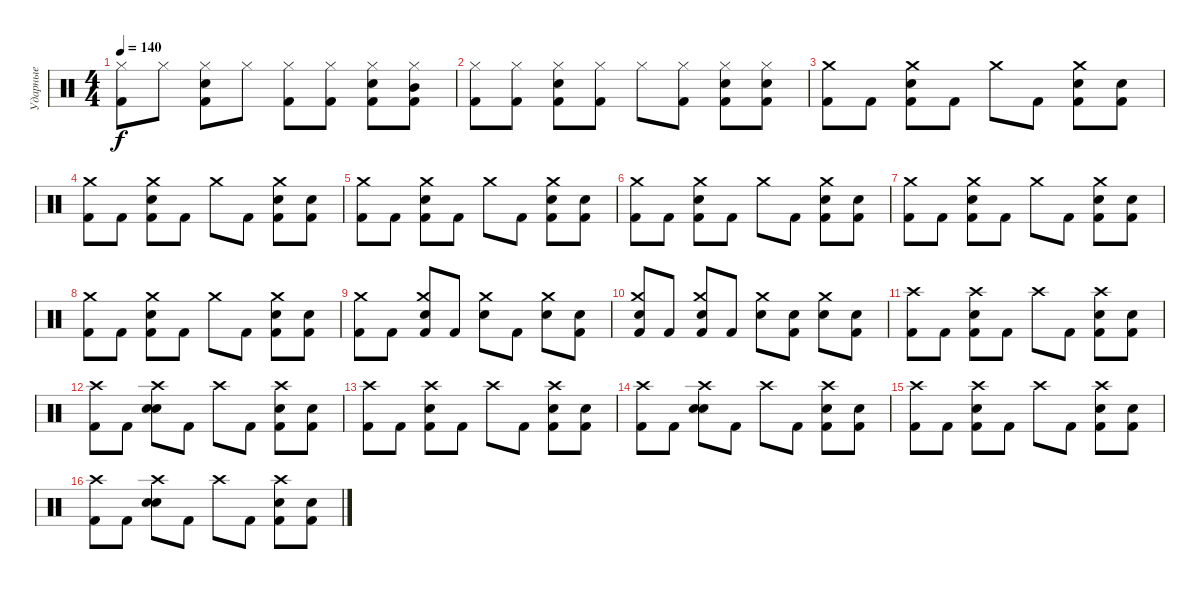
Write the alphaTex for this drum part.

\track ("Ударные" "Ударные") {instrument percussion}
\staff {score}
\articulation defaults
\ts (4 4)
\tempo 140
\clef neutral
\ks c
("Hi-Hat (closed)" "Kick (hit) 2").8{dy f} "Hi-Hat (closed)".8 ("Hi-Hat (closed)" "Kick (hit) 2" "Snare (hit) 2").8 "Hi-Hat (closed)".8 ("Hi-Hat (closed)" "Kick (hit) 2").8 ("Hi-Hat (closed)" "Kick (hit) 2").8 ("Hi-Hat (closed)" "Snare (hit) 2" "Kick (hit) 2").8 ("Mid Tom (hit)" "Kick (hit) 2" "Hi-Hat (closed)").8 |
("Hi-Hat (closed)" "Kick (hit) 2").8 ("Hi-Hat (closed)" "Kick (hit) 2").8 ("Hi-Hat (closed)" "Kick (hit) 2" "Snare (hit) 2").8 ("Hi-Hat (closed)" "Kick (hit) 2").8 "Hi-Hat (closed)".8 ("Hi-Hat (closed)" "Kick (hit) 2").8 ("Hi-Hat (closed)" "Snare (hit) 2" "Kick (hit) 2").8 ("Snare (hit) 2" "Kick (hit) 2" "Hi-Hat (closed)").8 |
("Crash medium (hit)" "Kick (hit) 2").8 "Kick (hit) 2".8 ("Crash medium (hit)" "Kick (hit) 2" "Snare (hit) 2").8 "Kick (hit) 2".8 "Crash medium (hit)".8 "Kick (hit) 2".8 ("Crash medium (hit)" "Snare (hit) 2" "Kick (hit) 2").8 ("Snare (hit) 2" "Kick (hit) 2").8 |
("Crash medium (hit)" "Kick (hit) 2").8 "Kick (hit) 2".8 ("Crash medium (hit)" "Kick (hit) 2" "Snare (hit) 2").8 "Kick (hit) 2".8 "Crash medium (hit)".8 "Kick (hit) 2".8 ("Crash medium (hit)" "Snare (hit) 2" "Kick (hit) 2").8 ("Snare (hit) 2" "Kick (hit) 2").8 |
("Crash medium (hit)" "Kick (hit) 2").8 "Kick (hit) 2".8 ("Crash medium (hit)" "Kick (hit) 2" "Snare (hit) 2").8 "Kick (hit) 2".8 "Crash medium (hit)".8 "Kick (hit) 2".8 ("Crash medium (hit)" "Snare (hit) 2" "Kick (hit) 2").8 ("Snare (hit) 2" "Kick (hit) 2").8 |
("Crash medium (hit)" "Kick (hit) 2").8 "Kick (hit) 2".8 ("Crash medium (hit)" "Kick (hit) 2" "Snare (hit) 2").8 "Kick (hit) 2".8 "Crash medium (hit)".8 "Kick (hit) 2".8 ("Crash medium (hit)" "Snare (hit) 2" "Kick (hit) 2").8 ("Snare (hit) 2" "Kick (hit) 2").8 |
("Crash medium (hit)" "Kick (hit) 2").8 "Kick (hit) 2".8 ("Crash medium (hit)" "Kick (hit) 2" "Snare (hit) 2").8 "Kick (hit) 2".8 "Crash medium (hit)".8 "Kick (hit) 2".8 ("Crash medium (hit)" "Snare (hit) 2" "Kick (hit) 2").8 ("Snare (hit) 2" "Kick (hit) 2").8 |
("Crash medium (hit)" "Kick (hit) 2").8 "Kick (hit) 2".8 ("Crash medium (hit)" "Kick (hit) 2" "Snare (hit) 2").8 "Kick (hit) 2".8 "Crash medium (hit)".8 "Kick (hit) 2".8 ("Crash medium (hit)" "Snare (hit) 2" "Kick (hit) 2").8 ("Snare (hit) 2" "Kick (hit) 2").8 |
("Crash medium (hit)" "Kick (hit) 2").8 "Kick (hit) 2".8 ("Crash medium (hit)" "Kick (hit) 2" "Electric Snare (hit)").8 "Kick (hit) 2".8 ("Crash medium (hit)" "Electric Snare (hit)").8 "Kick (hit) 2".8 ("Crash medium (hit)" "Electric Snare (hit)").8 ("Snare (hit) 2" "Kick (hit) 2").8 |
("Crash medium (hit)" "Kick (hit) 2" "Electric Snare (hit)").8 "Kick (hit) 2".8 ("Crash medium (hit)" "Kick (hit) 2" "Electric Snare (hit)").8 "Kick (hit) 2".8 ("Crash medium (hit)" "Electric Snare (hit)").8 ("Kick (hit) 2" "Electric Snare (hit)").8 ("Crash medium (hit)" "Electric Snare (hit)").8 ("Kick (hit) 2" "Electric Snare (hit)").8 |
("Crash high (hit)" "Kick (hit) 2").8 "Kick (hit) 2".8 ("Crash high (hit)" "Kick (hit) 2" "Snare (hit) 2").8 "Kick (hit) 2".8 "Crash high (hit)".8 "Kick (hit) 2".8 ("Crash high (hit)" "Snare (hit) 2" "Kick (hit) 2").8 ("Snare (hit) 2" "Kick (hit) 2").8 |
("Crash high (hit)" "Kick (hit) 2").8 "Kick (hit) 2".8 ("Crash high (hit)" "Snare (hit) 2" "Electric Snare (hit)").8 "Kick (hit) 2".8 "Crash high (hit)".8 "Kick (hit) 2".8 ("Crash high (hit)" "Snare (hit) 2" "Kick (hit) 2").8 ("Snare (hit) 2" "Kick (hit) 2").8 |
("Crash high (hit)" "Kick (hit) 2").8 "Kick (hit) 2".8 ("Crash high (hit)" "Kick (hit) 2" "Snare (hit) 2").8 "Kick (hit) 2".8 "Crash high (hit)".8 "Kick (hit) 2".8 ("Crash high (hit)" "Snare (hit) 2" "Kick (hit) 2").8 ("Snare (hit) 2" "Kick (hit) 2").8 |
("Crash high (hit)" "Kick (hit) 2").8 "Kick (hit) 2".8 ("Crash high (hit)" "Snare (hit) 2" "Electric Snare (hit)").8 "Kick (hit) 2".8 "Crash high (hit)".8 "Kick (hit) 2".8 ("Crash high (hit)" "Snare (hit) 2" "Kick (hit) 2").8 ("Snare (hit) 2" "Kick (hit) 2").8 |
("Crash high (hit)" "Kick (hit) 2").8 "Kick (hit) 2".8 ("Crash high (hit)" "Kick (hit) 2" "Snare (hit) 2").8 "Kick (hit) 2".8 "Crash high (hit)".8 "Kick (hit) 2".8 ("Crash high (hit)" "Snare (hit) 2" "Kick (hit) 2").8 ("Snare (hit) 2" "Kick (hit) 2").8 |
("Crash high (hit)" "Kick (hit) 2").8 "Kick (hit) 2".8 ("Crash high (hit)" "Snare (hit) 2" "Electric Snare (hit)").8 "Kick (hit) 2".8 "Crash high (hit)".8 "Kick (hit) 2".8 ("Crash high (hit)" "Snare (hit) 2" "Kick (hit) 2").8 ("Snare (hit) 2" "Kick (hit) 2").8
